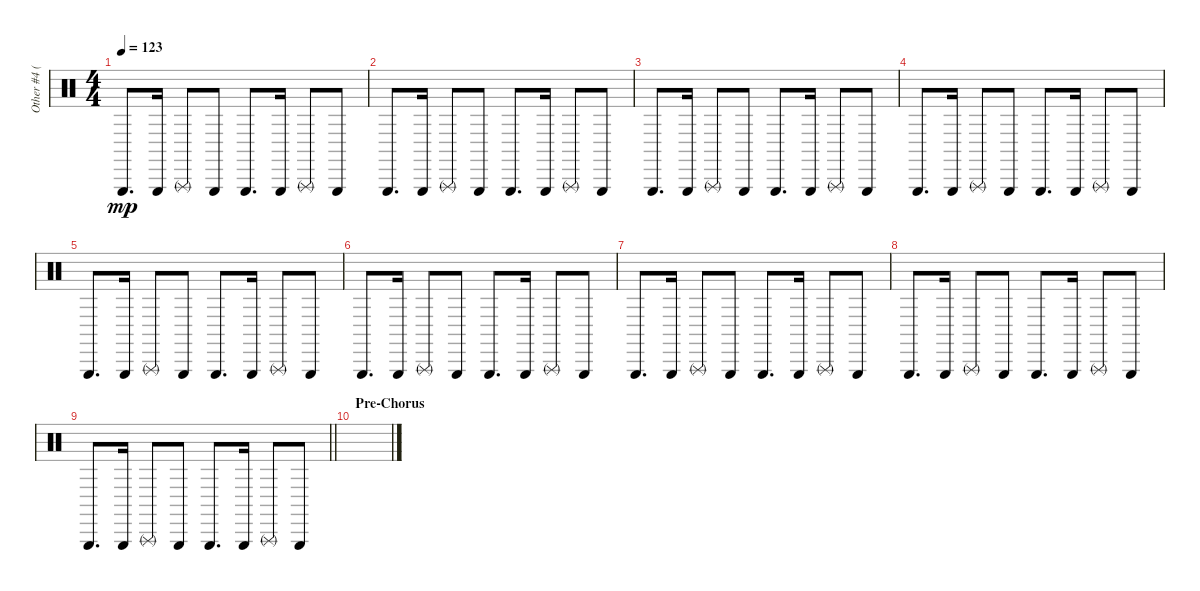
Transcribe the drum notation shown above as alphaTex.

\track ("Other #4 (Triangle)" "Other #4 (") {instrument percussion}
\staff {score}
\articulation defaults
\ts (4 4)
\tempo 123
\clef neutral
\ks c "Triangle (hit)".8{d dy mp} "Triangle (hit)".16 "Triangle (rnute)".8 "Triangle (hit)".8 "Triangle (hit)".8{d} "Triangle (hit)".16 "Triangle (rnute)".8 "Triangle (hit)".8
|
"Triangle (hit)".8{d} "Triangle (hit)".16 "Triangle (rnute)".8 "Triangle (hit)".8 "Triangle (hit)".8{d} "Triangle (hit)".16 "Triangle (rnute)".8 "Triangle (hit)".8 |
"Triangle (hit)".8{d} "Triangle (hit)".16 "Triangle (rnute)".8 "Triangle (hit)".8 "Triangle (hit)".8{d} "Triangle (hit)".16 "Triangle (rnute)".8 "Triangle (hit)".8 |
"Triangle (hit)".8{d} "Triangle (hit)".16 "Triangle (rnute)".8 "Triangle (hit)".8 "Triangle (hit)".8{d} "Triangle (hit)".16 "Triangle (rnute)".8 "Triangle (hit)".8 |
"Triangle (hit)".8{d} "Triangle (hit)".16 "Triangle (rnute)".8 "Triangle (hit)".8 "Triangle (hit)".8{d} "Triangle (hit)".16 "Triangle (rnute)".8 "Triangle (hit)".8 |
"Triangle (hit)".8{d} "Triangle (hit)".16 "Triangle (rnute)".8 "Triangle (hit)".8 "Triangle (hit)".8{d} "Triangle (hit)".16 "Triangle (rnute)".8 "Triangle (hit)".8 |
"Triangle (hit)".8{d} "Triangle (hit)".16 "Triangle (rnute)".8 "Triangle (hit)".8 "Triangle (hit)".8{d} "Triangle (hit)".16 "Triangle (rnute)".8 "Triangle (hit)".8 |
"Triangle (hit)".8{d} "Triangle (hit)".16 "Triangle (rnute)".8 "Triangle (hit)".8 "Triangle (hit)".8{d} "Triangle (hit)".16 "Triangle (rnute)".8 "Triangle (hit)".8 |
\barLineRight lightlight "Triangle (hit)".8{d} "Triangle (hit)".16 "Triangle (rnute)".8 "Triangle (hit)".8 "Triangle (hit)".8{d} "Triangle (hit)".16 "Triangle (rnute)".8 "Triangle (hit)".8
|
\section ("" "Pre-Chorus")
